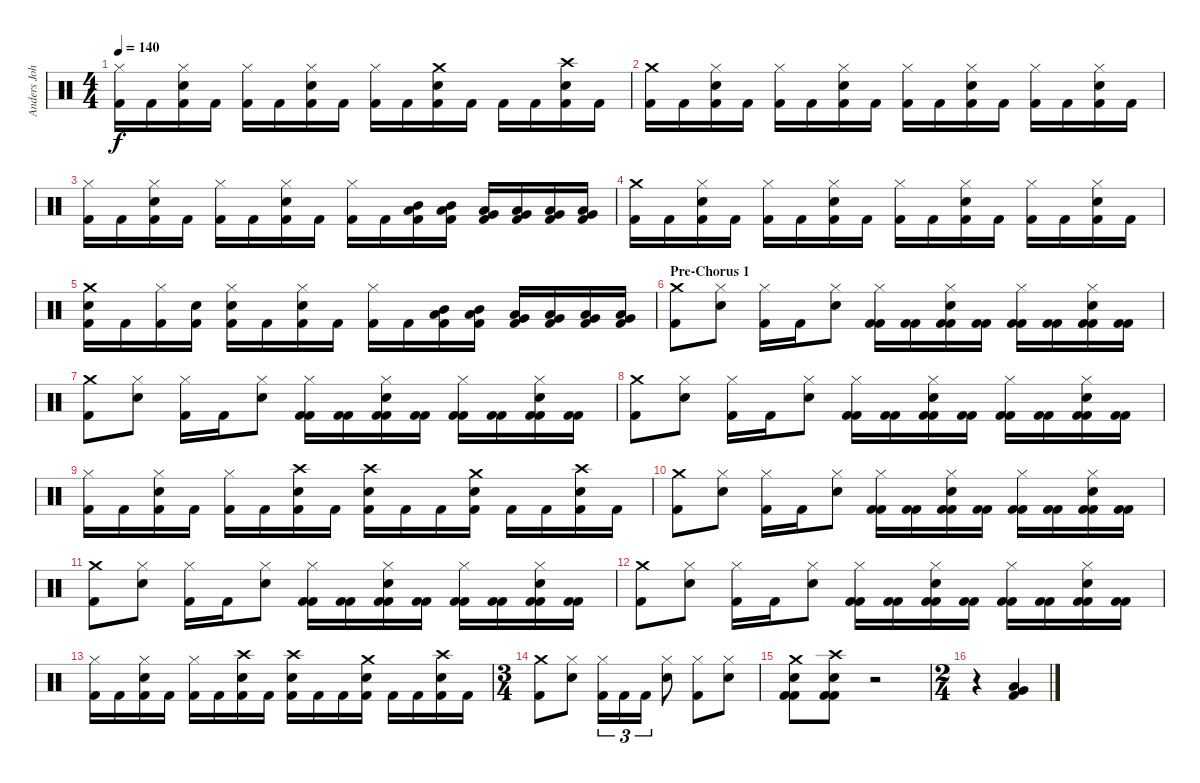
\track ("Anders Johansson :: Drums" "Anders Joh") {instrument percussion}
\staff {score}
\articulation defaults
\ts (4 4)
\tempo 140
\clef neutral
\ks c
("Hi-Hat (closed)" "Kick (hit) 2").16{dy f} "Kick (hit) 2".16 ("Hi-Hat (closed)" "Snare (hit) 2" "Kick (hit) 2").16 "Kick (hit) 2".16 ("Hi-Hat (closed)" "Kick (hit) 2").16 "Kick (hit) 2".16 ("Hi-Hat (closed)" "Snare (hit) 2" "Kick (hit) 2").16 "Kick (hit) 2".16 ("Hi-Hat (closed)" "Kick (hit) 2").16 "Kick (hit) 2".16 ("Crash medium (hit)" "Snare (hit) 2" "Kick (hit) 2").16 "Kick (hit) 2".16 "Kick (hit) 2".16 "Kick (hit) 2".16 ("Crash high (hit)" "Snare (hit) 2" "Kick (hit) 2").16 "Kick (hit) 2".16 |
("Crash medium (hit)" "Kick (hit) 2").16 "Kick (hit) 2".16 ("Hi-Hat (closed)" "Snare (hit) 2" "Kick (hit) 2").16 "Kick (hit) 2".16 ("Hi-Hat (closed)" "Kick (hit) 2").16 "Kick (hit) 2".16 ("Hi-Hat (closed)" "Snare (hit) 2" "Kick (hit) 2").16 "Kick (hit) 2".16 ("Hi-Hat (closed)" "Kick (hit) 2").16 "Kick (hit) 2".16 ("Hi-Hat (closed)" "Snare (hit) 2" "Kick (hit) 2").16 "Kick (hit) 2".16 ("Hi-Hat (closed)" "Kick (hit) 2").16 "Kick (hit) 2".16 ("Hi-Hat (closed)" "Snare (hit) 2" "Kick (hit) 2").16 "Kick (hit) 2".16 |
("Hi-Hat (closed)" "Kick (hit) 2").16 "Kick (hit) 2".16 ("Hi-Hat (closed)" "Snare (hit) 2" "Kick (hit) 2").16 "Kick (hit) 2".16 ("Hi-Hat (closed)" "Kick (hit) 2").16 "Kick (hit) 2".16 ("Hi-Hat (closed)" "Snare (hit) 2" "Kick (hit) 2").16 "Kick (hit) 2".16 ("Hi-Hat (closed)" "Kick (hit) 2").16 "Kick (hit) 2".16 ("Mid Tom (hit)" "Low Tom (hit)" "Kick (hit) 2").16 ("Mid Tom (hit)" "Low Tom (hit)" "Kick (hit) 2").16 ("Low Tom (hit)" "Very Low Tom (hit)" "Kick (hit) 2").16 ("Low Tom (hit)" "Very Low Tom (hit)" "Kick (hit) 2").16 ("Very Low Tom (hit)" "Low Floor Tom (hit)" "Kick (hit) 2").16 ("Very Low Tom (hit)" "Low Floor Tom (hit)" "Kick (hit) 2").16 |
("Crash medium (hit)" "Kick (hit) 2").16 "Kick (hit) 2".16 ("Hi-Hat (closed)" "Snare (hit) 2" "Kick (hit) 2").16 "Kick (hit) 2".16 ("Hi-Hat (closed)" "Kick (hit) 2").16 "Kick (hit) 2".16 ("Hi-Hat (closed)" "Snare (hit) 2" "Kick (hit) 2").16 "Kick (hit) 2".16 ("Hi-Hat (closed)" "Kick (hit) 2").16 "Kick (hit) 2".16 ("Hi-Hat (closed)" "Snare (hit) 2" "Kick (hit) 2").16 "Kick (hit) 2".16 ("Hi-Hat (closed)" "Kick (hit) 2").16 "Kick (hit) 2".16 ("Hi-Hat (closed)" "Snare (hit) 2" "Kick (hit) 2").16 "Kick (hit) 2".16 |
("Crash medium (hit)" "Snare (hit) 2" "Kick (hit) 2").16 "Kick (hit) 2".16 ("Hi-Hat (closed)" "Kick (hit) 2").16 ("Snare (hit) 2" "Kick (hit) 2").16 ("Hi-Hat (closed)" "Snare (hit) 2" "Kick (hit) 2").16 "Kick (hit) 2".16 ("Hi-Hat (closed)" "Snare (hit) 2" "Kick (hit) 2").16 "Kick (hit) 2".16 ("Hi-Hat (closed)" "Kick (hit) 2").16 "Kick (hit) 2".16 ("Mid Tom (hit)" "Low Tom (hit)" "Kick (hit) 2").16 ("Mid Tom (hit)" "Low Tom (hit)" "Kick (hit) 2").16 ("Low Tom (hit)" "Very Low Tom (hit)" "Kick (hit) 2").16 ("Low Tom (hit)" "Very Low Tom (hit)" "Kick (hit) 2").16 ("Very Low Tom (hit)" "Low Floor Tom (hit)" "Kick (hit) 2").16 ("Very Low Tom (hit)" "Low Floor Tom (hit)" "Kick (hit) 2").16 |
\section ("" "Pre-Chorus 1")
("Crash medium (hit)" "Kick (hit) 2").8 ("Hi-Hat (closed)" "Snare (hit) 2").8 ("Hi-Hat (closed)" "Kick (hit) 2").16 "Kick (hit) 2".16 ("Hi-Hat (closed)" "Snare (hit) 2").8 ("Hi-Hat (closed)" "Kick (hit) 2" "Kick (hit) 2").16 ("Kick (hit) 2" "Kick (hit) 2").16 ("Hi-Hat (closed)" "Snare (hit) 2" "Kick (hit) 2" "Kick (hit) 2").16 ("Kick (hit) 2" "Kick (hit) 2").16 ("Hi-Hat (closed)" "Kick (hit) 2" "Kick (hit) 2").16 ("Kick (hit) 2" "Kick (hit) 2").16 ("Hi-Hat (closed)" "Snare (hit) 2" "Kick (hit) 2" "Kick (hit) 2").16 ("Kick (hit) 2" "Kick (hit) 2").16 |
("Crash medium (hit)" "Kick (hit) 2").8 ("Hi-Hat (closed)" "Snare (hit) 2").8 ("Hi-Hat (closed)" "Kick (hit) 2").16 "Kick (hit) 2".16 ("Hi-Hat (closed)" "Snare (hit) 2").8 ("Hi-Hat (closed)" "Kick (hit) 2" "Kick (hit) 2").16 ("Kick (hit) 2" "Kick (hit) 2").16 ("Hi-Hat (closed)" "Snare (hit) 2" "Kick (hit) 2" "Kick (hit) 2").16 ("Kick (hit) 2" "Kick (hit) 2").16 ("Hi-Hat (closed)" "Kick (hit) 2" "Kick (hit) 2").16 ("Kick (hit) 2" "Kick (hit) 2").16 ("Hi-Hat (closed)" "Snare (hit) 2" "Kick (hit) 2" "Kick (hit) 2").16 ("Kick (hit) 2" "Kick (hit) 2").16 |
("Crash medium (hit)" "Kick (hit) 2").8 ("Hi-Hat (closed)" "Snare (hit) 2").8 ("Hi-Hat (closed)" "Kick (hit) 2").16 "Kick (hit) 2".16 ("Hi-Hat (closed)" "Snare (hit) 2").8 ("Hi-Hat (closed)" "Kick (hit) 2" "Kick (hit) 2").16 ("Kick (hit) 2" "Kick (hit) 2").16 ("Hi-Hat (closed)" "Snare (hit) 2" "Kick (hit) 2" "Kick (hit) 2").16 ("Kick (hit) 2" "Kick (hit) 2").16 ("Hi-Hat (closed)" "Kick (hit) 2" "Kick (hit) 2").16 ("Kick (hit) 2" "Kick (hit) 2").16 ("Hi-Hat (closed)" "Snare (hit) 2" "Kick (hit) 2" "Kick (hit) 2").16 ("Kick (hit) 2" "Kick (hit) 2").16 |
("Hi-Hat (closed)" "Kick (hit) 2").16 "Kick (hit) 2".16 ("Hi-Hat (closed)" "Snare (hit) 2" "Kick (hit) 2").16 "Kick (hit) 2".16 ("Hi-Hat (closed)" "Kick (hit) 2").16 "Kick (hit) 2".16 ("Crash high (hit)" "Snare (hit) 2" "Kick (hit) 2").16 "Kick (hit) 2".16 ("Crash high (hit)" "Snare (hit) 2" "Kick (hit) 2").16 "Kick (hit) 2".16 "Kick (hit) 2".16 ("Crash medium (hit)" "Snare (hit) 2" "Kick (hit) 2").16 "Kick (hit) 2".16 "Kick (hit) 2".16 ("Crash high (hit)" "Snare (hit) 2" "Kick (hit) 2").16 "Kick (hit) 2".16 |
("Crash medium (hit)" "Kick (hit) 2").8 ("Hi-Hat (closed)" "Snare (hit) 2").8 ("Hi-Hat (closed)" "Kick (hit) 2").16 "Kick (hit) 2".16 ("Hi-Hat (closed)" "Snare (hit) 2").8 ("Hi-Hat (closed)" "Kick (hit) 2" "Kick (hit) 2").16 ("Kick (hit) 2" "Kick (hit) 2").16 ("Hi-Hat (closed)" "Snare (hit) 2" "Kick (hit) 2" "Kick (hit) 2").16 ("Kick (hit) 2" "Kick (hit) 2").16 ("Hi-Hat (closed)" "Kick (hit) 2" "Kick (hit) 2").16 ("Kick (hit) 2" "Kick (hit) 2").16 ("Hi-Hat (closed)" "Snare (hit) 2" "Kick (hit) 2" "Kick (hit) 2").16 ("Kick (hit) 2" "Kick (hit) 2").16 |
("Crash medium (hit)" "Kick (hit) 2").8 ("Hi-Hat (closed)" "Snare (hit) 2").8 ("Hi-Hat (closed)" "Kick (hit) 2").16 "Kick (hit) 2".16 ("Hi-Hat (closed)" "Snare (hit) 2").8 ("Hi-Hat (closed)" "Kick (hit) 2" "Kick (hit) 2").16 ("Kick (hit) 2" "Kick (hit) 2").16 ("Hi-Hat (closed)" "Snare (hit) 2" "Kick (hit) 2" "Kick (hit) 2").16 ("Kick (hit) 2" "Kick (hit) 2").16 ("Hi-Hat (closed)" "Kick (hit) 2" "Kick (hit) 2").16 ("Kick (hit) 2" "Kick (hit) 2").16 ("Hi-Hat (closed)" "Snare (hit) 2" "Kick (hit) 2" "Kick (hit) 2").16 ("Kick (hit) 2" "Kick (hit) 2").16 |
("Crash medium (hit)" "Kick (hit) 2").8 ("Hi-Hat (closed)" "Snare (hit) 2").8 ("Hi-Hat (closed)" "Kick (hit) 2").16 "Kick (hit) 2".16 ("Hi-Hat (closed)" "Snare (hit) 2").8 ("Hi-Hat (closed)" "Kick (hit) 2" "Kick (hit) 2").16 ("Kick (hit) 2" "Kick (hit) 2").16 ("Hi-Hat (closed)" "Snare (hit) 2" "Kick (hit) 2" "Kick (hit) 2").16 ("Kick (hit) 2" "Kick (hit) 2").16 ("Hi-Hat (closed)" "Kick (hit) 2" "Kick (hit) 2").16 ("Kick (hit) 2" "Kick (hit) 2").16 ("Hi-Hat (closed)" "Snare (hit) 2" "Kick (hit) 2" "Kick (hit) 2").16 ("Kick (hit) 2" "Kick (hit) 2").16 |
("Hi-Hat (closed)" "Kick (hit) 2").16 "Kick (hit) 2".16 ("Hi-Hat (closed)" "Snare (hit) 2" "Kick (hit) 2").16 "Kick (hit) 2".16 ("Hi-Hat (closed)" "Kick (hit) 2").16 "Kick (hit) 2".16 ("Crash high (hit)" "Snare (hit) 2" "Kick (hit) 2").16 "Kick (hit) 2".16 ("Crash high (hit)" "Snare (hit) 2" "Kick (hit) 2").16 "Kick (hit) 2".16 "Kick (hit) 2".16 ("Crash medium (hit)" "Snare (hit) 2" "Kick (hit) 2").16 "Kick (hit) 2".16 "Kick (hit) 2".16 ("Crash high (hit)" "Snare (hit) 2" "Kick (hit) 2").16 "Kick (hit) 2".16 |
\ts (3 4)
("Crash medium (hit)" "Kick (hit) 2").8 ("Hi-Hat (closed)" "Snare (hit) 2").8 ("Hi-Hat (closed)" "Kick (hit) 2").16{tu (3 2)} "Kick (hit) 2".16{tu (3 2)} "Kick (hit) 2".16{tu (3 2)} ("Hi-Hat (closed)" "Snare (hit) 2").8 ("Hi-Hat (closed)" "Kick (hit) 2").8 ("Hi-Hat (closed)" "Snare (hit) 2").8 |
("Crash medium (hit)" "Snare (hit) 2" "Kick (hit) 2" "Kick (hit) 2").8 ("Crash high (hit)" "Snare (hit) 2" "Kick (hit) 2" "Kick (hit) 2").8 r.2 |
\ts (2 4)
r.4 ("Low Tom (hit)" "Very Low Tom (hit)" "Kick (hit) 2").4
